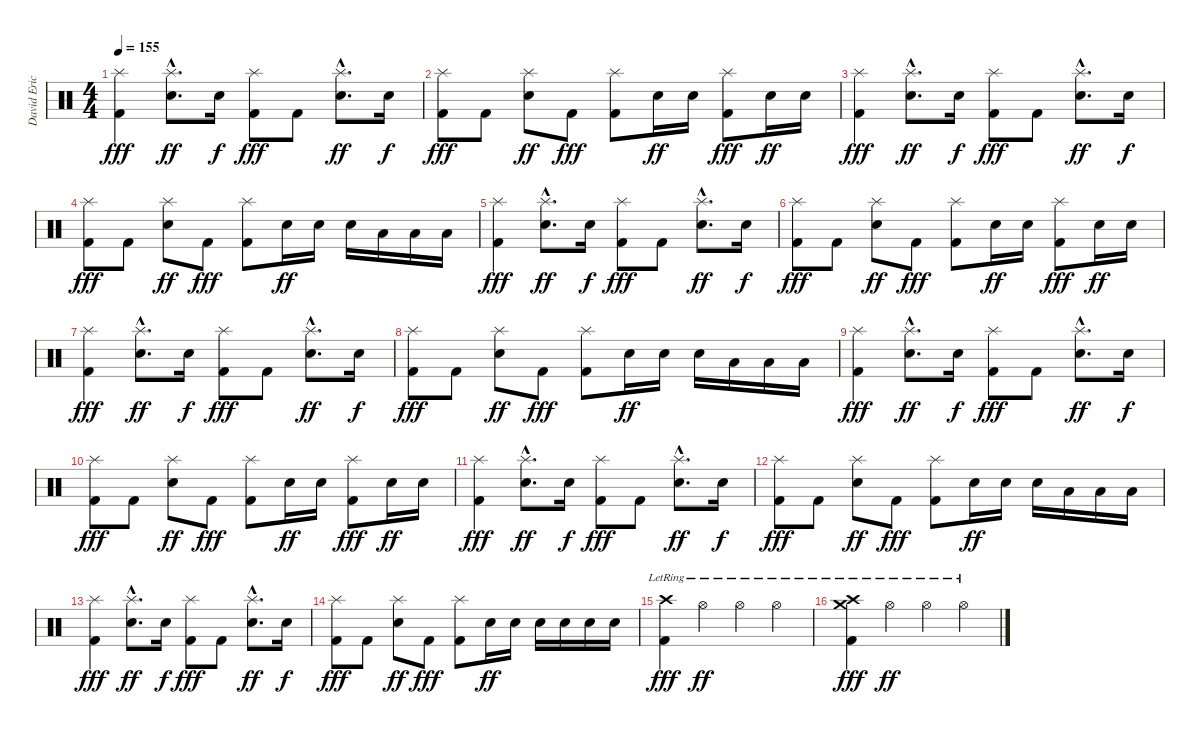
\track ("David Eric Grohl" "David Eric") {instrument percussion}
\staff {score}
\articulation defaults
\ts (4 4)
\tempo 155
\clef neutral
\ks c
("Splash (hit)" "Kick (hit) 2").4{dy fff} ("Splash (hit)"{hac} "Electric Snare (hit)"{hac}).8{d dy ff} "Electric Snare (hit)".16{dy f} ("Splash (hit)" "Kick (hit) 2").8{dy fff} "Kick (hit) 2".8 ("Splash (hit)"{hac} "Electric Snare (hit)"{hac}).8{d dy ff} "Electric Snare (hit)".16{dy f} |
("Splash (hit)" "Kick (hit) 2").8{dy fff} "Kick (hit) 2".8 ("Splash (hit)" "Electric Snare (hit)").8{dy ff} "Kick (hit) 2".8{dy fff} ("Splash (hit)" "Kick (hit) 2").8 "Electric Snare (hit)".16{dy ff} "Electric Snare (hit)".16 ("Splash (hit)" "Kick (hit) 2").8{dy fff} "Electric Snare (hit)".16{dy ff} "Electric Snare (hit)".16 |
("Splash (hit)" "Kick (hit) 2").4{dy fff} ("Splash (hit)"{hac} "Electric Snare (hit)"{hac}).8{d dy ff} "Electric Snare (hit)".16{dy f} ("Splash (hit)" "Kick (hit) 2").8{dy fff} "Kick (hit) 2".8 ("Splash (hit)"{hac} "Electric Snare (hit)"{hac}).8{d dy ff} "Electric Snare (hit)".16{dy f} |
("Splash (hit)" "Kick (hit) 2").8{dy fff} "Kick (hit) 2".8 ("Splash (hit)" "Electric Snare (hit)").8{dy ff} "Kick (hit) 2".8{dy fff} ("Splash (hit)" "Kick (hit) 2").8 "Electric Snare (hit)".16{dy ff} "Electric Snare (hit)".16 "Electric Snare (hit)".16 "Low Tom (hit)".16 "Low Tom (hit)".16 "Low Tom (hit)".16 |
("Splash (hit)" "Kick (hit) 2").4{dy fff} ("Splash (hit)"{hac} "Electric Snare (hit)"{hac}).8{d dy ff} "Electric Snare (hit)".16{dy f} ("Splash (hit)" "Kick (hit) 2").8{dy fff} "Kick (hit) 2".8 ("Splash (hit)"{hac} "Electric Snare (hit)"{hac}).8{d dy ff} "Electric Snare (hit)".16{dy f} |
("Splash (hit)" "Kick (hit) 2").8{dy fff} "Kick (hit) 2".8 ("Splash (hit)" "Electric Snare (hit)").8{dy ff} "Kick (hit) 2".8{dy fff} ("Splash (hit)" "Kick (hit) 2").8 "Electric Snare (hit)".16{dy ff} "Electric Snare (hit)".16 ("Splash (hit)" "Kick (hit) 2").8{dy fff} "Electric Snare (hit)".16{dy ff} "Electric Snare (hit)".16 |
("Splash (hit)" "Kick (hit) 2").4{dy fff} ("Splash (hit)"{hac} "Electric Snare (hit)"{hac}).8{d dy ff} "Electric Snare (hit)".16{dy f} ("Splash (hit)" "Kick (hit) 2").8{dy fff} "Kick (hit) 2".8 ("Splash (hit)"{hac} "Electric Snare (hit)"{hac}).8{d dy ff} "Electric Snare (hit)".16{dy f} |
("Splash (hit)" "Kick (hit) 2").8{dy fff} "Kick (hit) 2".8 ("Splash (hit)" "Electric Snare (hit)").8{dy ff} "Kick (hit) 2".8{dy fff} ("Splash (hit)" "Kick (hit) 2").8 "Electric Snare (hit)".16{dy ff} "Electric Snare (hit)".16 "Electric Snare (hit)".16 "Low Tom (hit)".16 "Low Tom (hit)".16 "Low Tom (hit)".16 |
("Splash (hit)" "Kick (hit) 2").4{dy fff} ("Splash (hit)"{hac} "Electric Snare (hit)"{hac}).8{d dy ff} "Electric Snare (hit)".16{dy f} ("Splash (hit)" "Kick (hit) 2").8{dy fff} "Kick (hit) 2".8 ("Splash (hit)"{hac} "Electric Snare (hit)"{hac}).8{d dy ff} "Electric Snare (hit)".16{dy f} |
("Splash (hit)" "Kick (hit) 2").8{dy fff} "Kick (hit) 2".8 ("Splash (hit)" "Electric Snare (hit)").8{dy ff} "Kick (hit) 2".8{dy fff} ("Splash (hit)" "Kick (hit) 2").8 "Electric Snare (hit)".16{dy ff} "Electric Snare (hit)".16 ("Splash (hit)" "Kick (hit) 2").8{dy fff} "Electric Snare (hit)".16{dy ff} "Electric Snare (hit)".16 |
("Splash (hit)" "Kick (hit) 2").4{dy fff} ("Splash (hit)"{hac} "Electric Snare (hit)"{hac}).8{d dy ff} "Electric Snare (hit)".16{dy f} ("Splash (hit)" "Kick (hit) 2").8{dy fff} "Kick (hit) 2".8 ("Splash (hit)"{hac} "Electric Snare (hit)"{hac}).8{d dy ff} "Electric Snare (hit)".16{dy f} |
("Splash (hit)" "Kick (hit) 2").8{dy fff} "Kick (hit) 2".8 ("Splash (hit)" "Electric Snare (hit)").8{dy ff} "Kick (hit) 2".8{dy fff} ("Splash (hit)" "Kick (hit) 2").8 "Electric Snare (hit)".16{dy ff} "Electric Snare (hit)".16 "Electric Snare (hit)".16 "Low Tom (hit)".16 "Low Tom (hit)".16 "Low Tom (hit)".16 |
("Splash (hit)" "Kick (hit) 2").4{dy fff} ("Splash (hit)"{hac} "Electric Snare (hit)"{hac}).8{d dy ff} "Electric Snare (hit)".16{dy f} ("Splash (hit)" "Kick (hit) 2").8{dy fff} "Kick (hit) 2".8 ("Splash (hit)"{hac} "Electric Snare (hit)"{hac}).8{d dy ff} "Electric Snare (hit)".16{dy f} |
("Splash (hit)" "Kick (hit) 2").8{dy fff} "Kick (hit) 2".8 ("Splash (hit)" "Electric Snare (hit)").8{dy ff} "Kick (hit) 2".8{dy fff} ("Splash (hit)" "Kick (hit) 2").8 "Electric Snare (hit)".16{dy ff} "Electric Snare (hit)".16 "Electric Snare (hit)".16 "Electric Snare (hit)".16 "Electric Snare (hit)".16 "Electric Snare (hit)".16 |
("Crash high (hit)"{lr} "Kick (hit) 2").4{dy fff} "Hi-Hat (open)"{lr}.4{dy ff} "Hi-Hat (open)"{lr}.4 "Hi-Hat (open)"{lr}.4 |
("Crash medium (hit)"{lr} "Crash high (hit)"{lr} "Kick (hit) 2").4{dy fff} "Hi-Hat (open)"{lr}.4{dy ff} "Hi-Hat (open)"{lr}.4 "Hi-Hat (open)"{lr}.4
